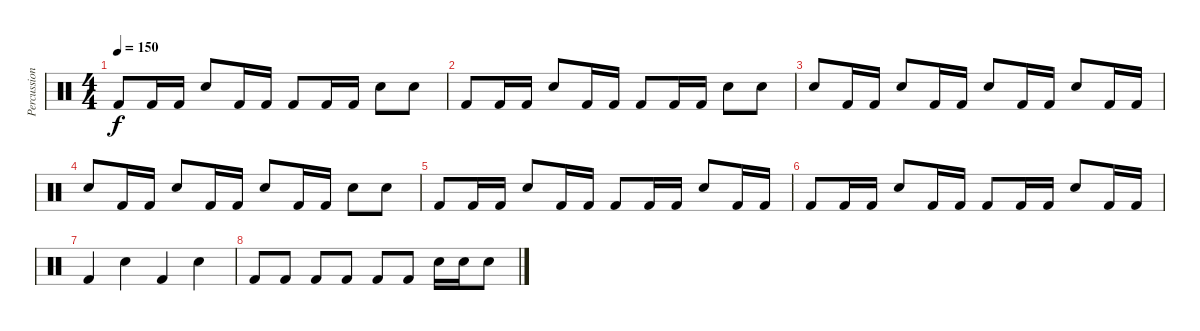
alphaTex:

\track ("Percussion" "Percussion") {instrument percussion}
\staff {score}
\articulation defaults
\ts (4 4)
\tempo 150
\clef neutral
\ks c "Kick (hit) 2".8{dy f} "Kick (hit) 2".16 "Kick (hit) 2".16 "Snare (hit) 2".8 "Kick (hit) 2".16 "Kick (hit) 2".16 "Kick (hit) 2".8 "Kick (hit) 2".16 "Kick (hit) 2".16 "Snare (hit) 2".8 "Snare (hit) 2".8
|
"Kick (hit) 2".8 "Kick (hit) 2".16 "Kick (hit) 2".16 "Snare (hit) 2".8 "Kick (hit) 2".16 "Kick (hit) 2".16 "Kick (hit) 2".8 "Kick (hit) 2".16 "Kick (hit) 2".16 "Snare (hit) 2".8 "Snare (hit) 2".8 |
"Snare (hit) 2".8 "Kick (hit) 2".16 "Kick (hit) 2".16 "Snare (hit) 2".8 "Kick (hit) 2".16 "Kick (hit) 2".16 "Snare (hit) 2".8 "Kick (hit) 2".16 "Kick (hit) 2".16 "Snare (hit) 2".8 "Kick (hit) 2".16 "Kick (hit) 2".16 |
"Snare (hit) 2".8 "Kick (hit) 2".16 "Kick (hit) 2".16 "Snare (hit) 2".8 "Kick (hit) 2".16 "Kick (hit) 2".16 "Snare (hit) 2".8 "Kick (hit) 2".16 "Kick (hit) 2".16 "Snare (hit) 2".8 "Snare (hit) 2".8 |
"Kick (hit) 2".8 "Kick (hit) 2".16 "Kick (hit) 2".16 "Snare (hit) 2".8 "Kick (hit) 2".16 "Kick (hit) 2".16 "Kick (hit) 2".8 "Kick (hit) 2".16 "Kick (hit) 2".16 "Snare (hit) 2".8 "Kick (hit) 2".16 "Kick (hit) 2".16 |
"Kick (hit) 2".8 "Kick (hit) 2".16 "Kick (hit) 2".16 "Snare (hit) 2".8 "Kick (hit) 2".16 "Kick (hit) 2".16 "Kick (hit) 2".8 "Kick (hit) 2".16 "Kick (hit) 2".16 "Snare (hit) 2".8 "Kick (hit) 2".16 "Kick (hit) 2".16 |
"Kick (hit) 2".4 "Snare (hit) 2".4 "Kick (hit) 2".4 "Snare (hit) 2".4 |
"Kick (hit) 2".8 "Kick (hit) 2".8 "Kick (hit) 2".8 "Kick (hit) 2".8 "Kick (hit) 2".8 "Kick (hit) 2".8 "Snare (hit) 2".16 "Snare (hit) 2".16 "Snare (hit) 2".8
